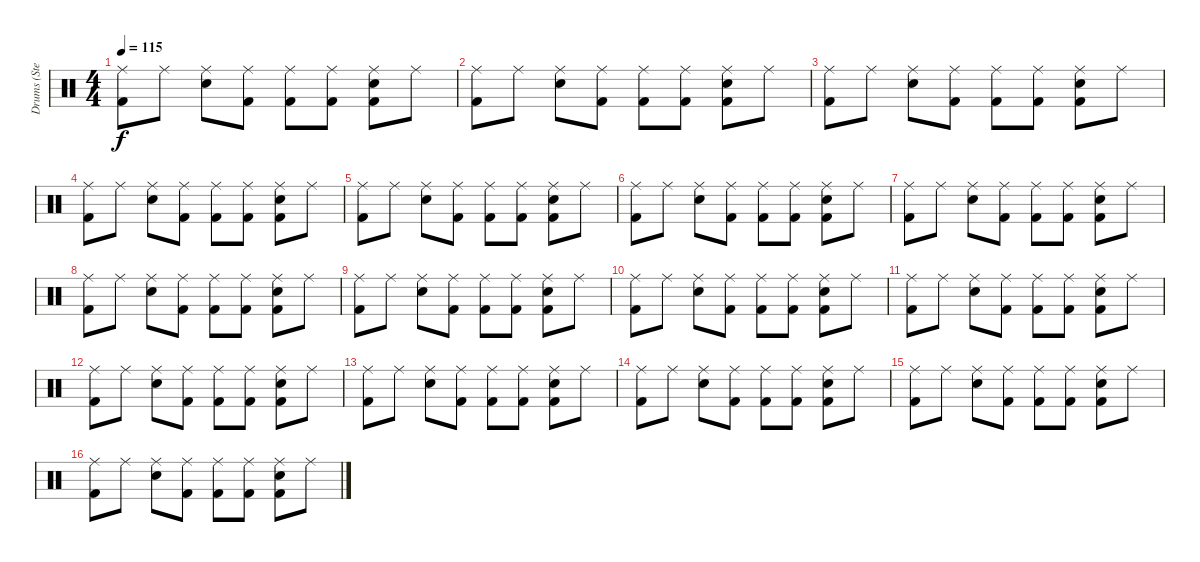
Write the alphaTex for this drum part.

\track ("Drums (Stewart)           " "Drums (Ste") {instrument percussion}
\staff {score}
\articulation defaults
\ts (4 4)
\tempo 115
\clef neutral
\ks c
("Ride (middle)" "Kick (hit) 2").8{dy f} "Ride (middle)".8 ("Ride (middle)" "Snare (hit) 2").8 ("Ride (middle)" "Kick (hit) 2").8 ("Ride (middle)" "Kick (hit) 2").8 ("Ride (middle)" "Kick (hit) 2").8 ("Ride (middle)" "Kick (hit) 2" "Snare (hit) 2").8 "Ride (middle)".8 |
("Ride (middle)" "Kick (hit) 2").8 "Ride (middle)".8 ("Ride (middle)" "Snare (hit) 2").8 ("Ride (middle)" "Kick (hit) 2").8 ("Ride (middle)" "Kick (hit) 2").8 ("Ride (middle)" "Kick (hit) 2").8 ("Ride (middle)" "Kick (hit) 2" "Snare (hit) 2").8 "Ride (middle)".8 |
("Ride (middle)" "Kick (hit) 2").8 "Ride (middle)".8 ("Ride (middle)" "Snare (hit) 2").8 ("Ride (middle)" "Kick (hit) 2").8 ("Ride (middle)" "Kick (hit) 2").8 ("Ride (middle)" "Kick (hit) 2").8 ("Ride (middle)" "Kick (hit) 2" "Snare (hit) 2").8 "Ride (middle)".8 |
("Ride (middle)" "Kick (hit) 2").8 "Ride (middle)".8 ("Ride (middle)" "Snare (hit) 2").8 ("Ride (middle)" "Kick (hit) 2").8 ("Ride (middle)" "Kick (hit) 2").8 ("Ride (middle)" "Kick (hit) 2").8 ("Ride (middle)" "Kick (hit) 2" "Snare (hit) 2").8 "Ride (middle)".8 |
("Ride (middle)" "Kick (hit) 2").8 "Ride (middle)".8 ("Ride (middle)" "Snare (hit) 2").8 ("Ride (middle)" "Kick (hit) 2").8 ("Ride (middle)" "Kick (hit) 2").8 ("Ride (middle)" "Kick (hit) 2").8 ("Ride (middle)" "Kick (hit) 2" "Snare (hit) 2").8 "Ride (middle)".8 |
("Ride (middle)" "Kick (hit) 2").8 "Ride (middle)".8 ("Ride (middle)" "Snare (hit) 2").8 ("Ride (middle)" "Kick (hit) 2").8 ("Ride (middle)" "Kick (hit) 2").8 ("Ride (middle)" "Kick (hit) 2").8 ("Ride (middle)" "Kick (hit) 2" "Snare (hit) 2").8 "Ride (middle)".8 |
("Ride (middle)" "Kick (hit) 2").8 "Ride (middle)".8 ("Ride (middle)" "Snare (hit) 2").8 ("Ride (middle)" "Kick (hit) 2").8 ("Ride (middle)" "Kick (hit) 2").8 ("Ride (middle)" "Kick (hit) 2").8 ("Ride (middle)" "Kick (hit) 2" "Snare (hit) 2").8 "Ride (middle)".8 |
("Ride (middle)" "Kick (hit) 2").8 "Ride (middle)".8 ("Ride (middle)" "Snare (hit) 2").8 ("Ride (middle)" "Kick (hit) 2").8 ("Ride (middle)" "Kick (hit) 2").8 ("Ride (middle)" "Kick (hit) 2").8 ("Ride (middle)" "Kick (hit) 2" "Snare (hit) 2").8 "Ride (middle)".8 |
("Ride (middle)" "Kick (hit) 2").8 "Ride (middle)".8 ("Ride (middle)" "Snare (hit) 2").8 ("Ride (middle)" "Kick (hit) 2").8 ("Ride (middle)" "Kick (hit) 2").8 ("Ride (middle)" "Kick (hit) 2").8 ("Ride (middle)" "Kick (hit) 2" "Snare (hit) 2").8 "Ride (middle)".8 |
("Ride (middle)" "Kick (hit) 2").8{volume 6} "Ride (middle)".8 ("Ride (middle)" "Snare (hit) 2").8 ("Ride (middle)" "Kick (hit) 2").8 ("Ride (middle)" "Kick (hit) 2").8 ("Ride (middle)" "Kick (hit) 2").8 ("Ride (middle)" "Kick (hit) 2" "Snare (hit) 2").8 "Ride (middle)".8 |
("Ride (middle)" "Kick (hit) 2").8 "Ride (middle)".8 ("Ride (middle)" "Snare (hit) 2").8 ("Ride (middle)" "Kick (hit) 2").8 ("Ride (middle)" "Kick (hit) 2").8 ("Ride (middle)" "Kick (hit) 2").8 ("Ride (middle)" "Kick (hit) 2" "Snare (hit) 2").8 "Ride (middle)".8 |
("Ride (middle)" "Kick (hit) 2").8 "Ride (middle)".8 ("Ride (middle)" "Snare (hit) 2").8 ("Ride (middle)" "Kick (hit) 2").8 ("Ride (middle)" "Kick (hit) 2").8 ("Ride (middle)" "Kick (hit) 2").8 ("Ride (middle)" "Kick (hit) 2" "Snare (hit) 2").8 "Ride (middle)".8 |
("Ride (middle)" "Kick (hit) 2").8 "Ride (middle)".8 ("Ride (middle)" "Snare (hit) 2").8 ("Ride (middle)" "Kick (hit) 2").8 ("Ride (middle)" "Kick (hit) 2").8 ("Ride (middle)" "Kick (hit) 2").8 ("Ride (middle)" "Kick (hit) 2" "Snare (hit) 2").8 "Ride (middle)".8 |
("Ride (middle)" "Kick (hit) 2").8 "Ride (middle)".8 ("Ride (middle)" "Snare (hit) 2").8 ("Ride (middle)" "Kick (hit) 2").8 ("Ride (middle)" "Kick (hit) 2").8 ("Ride (middle)" "Kick (hit) 2").8 ("Ride (middle)" "Kick (hit) 2" "Snare (hit) 2").8 "Ride (middle)".8 |
("Ride (middle)" "Kick (hit) 2").8 "Ride (middle)".8 ("Ride (middle)" "Snare (hit) 2").8 ("Ride (middle)" "Kick (hit) 2").8 ("Ride (middle)" "Kick (hit) 2").8 ("Ride (middle)" "Kick (hit) 2").8 ("Ride (middle)" "Kick (hit) 2" "Snare (hit) 2").8 "Ride (middle)".8 |
("Ride (middle)" "Kick (hit) 2").8 "Ride (middle)".8 ("Ride (middle)" "Snare (hit) 2").8 ("Ride (middle)" "Kick (hit) 2").8 ("Ride (middle)" "Kick (hit) 2").8 ("Ride (middle)" "Kick (hit) 2").8 ("Ride (middle)" "Kick (hit) 2" "Snare (hit) 2").8 "Ride (middle)".8
